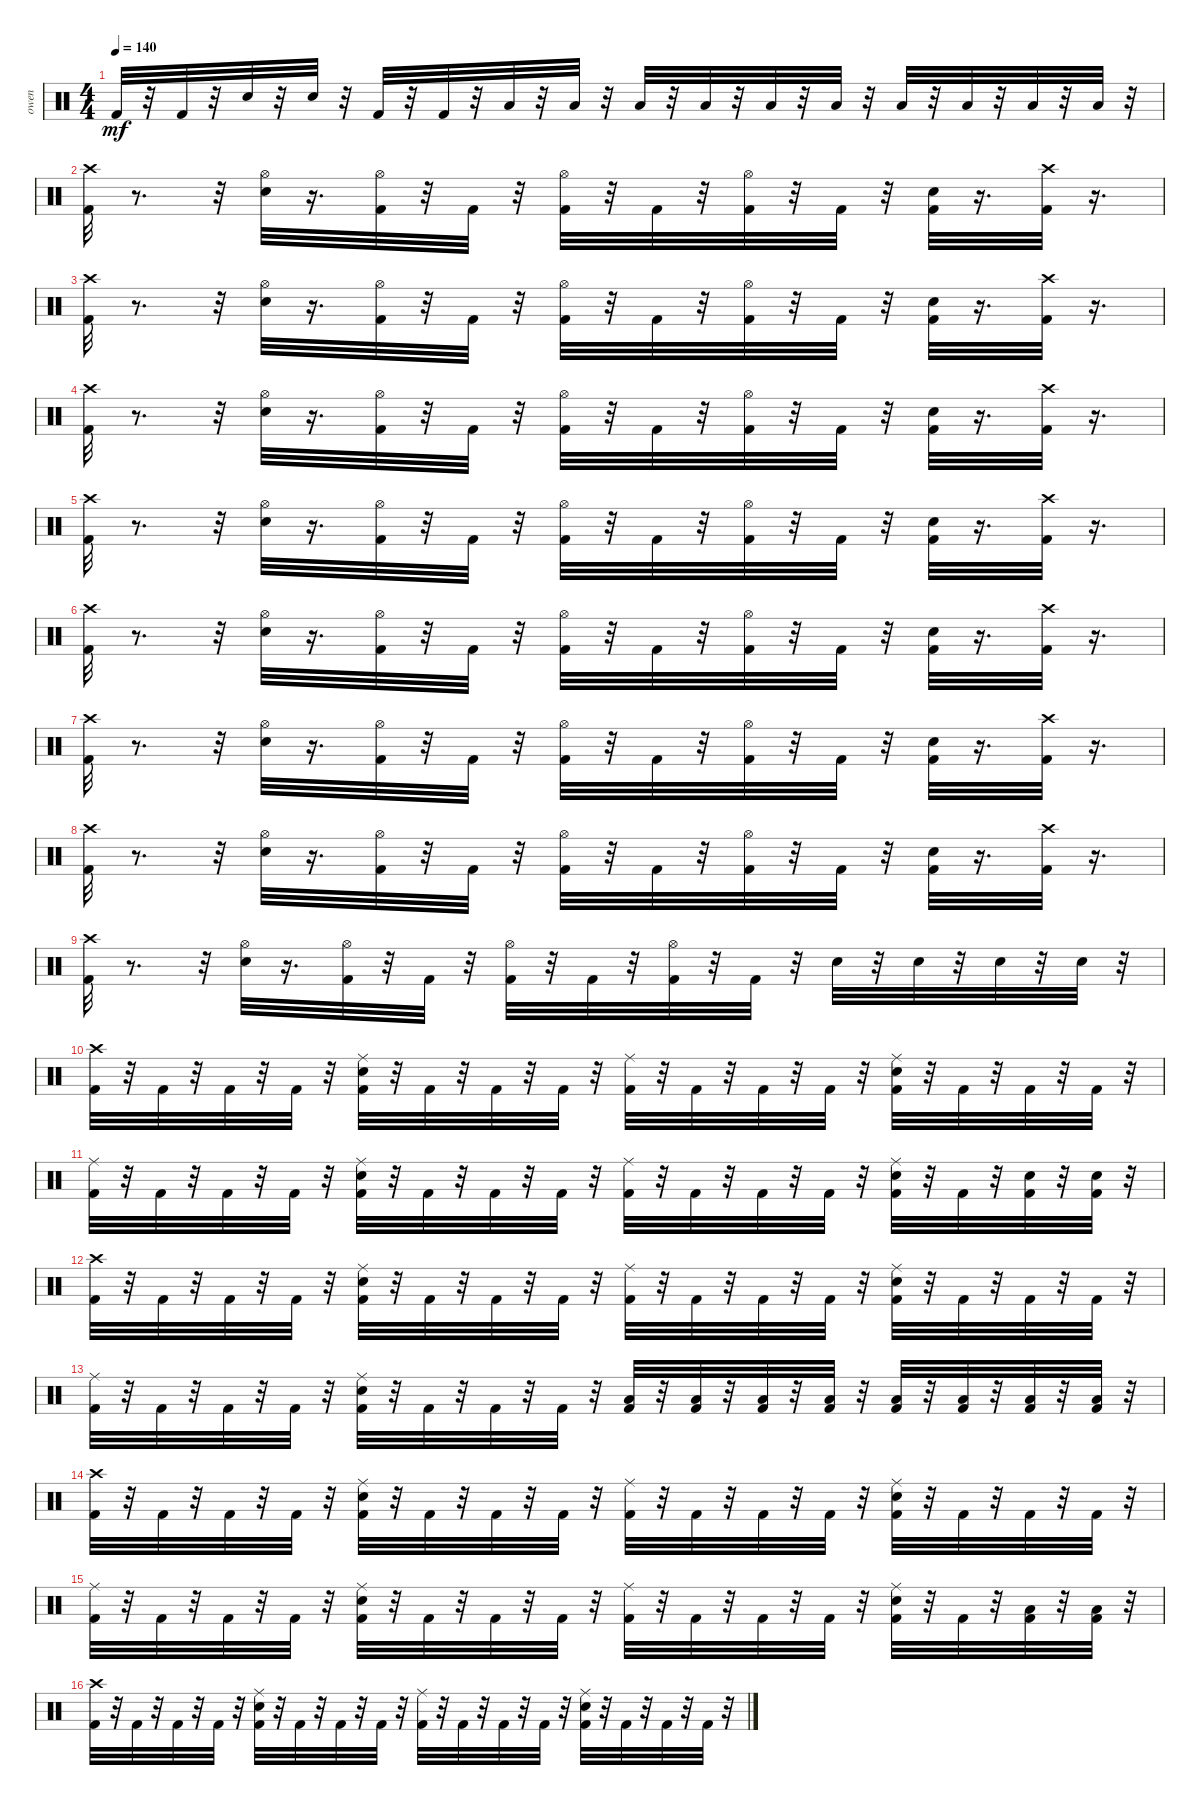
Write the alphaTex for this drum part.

\track ("owen" "owen") {instrument percussion}
\staff {score}
\articulation defaults
\ts (4 4)
\tempo 140
\clef neutral
\ks c "Kick (hit) 2".32{dy mf}
r.32 "Kick (hit) 2".32 r.32 "Snare (hit) 2".32 r.32 "Snare (hit) 2".32 r.32 "Kick (hit) 2".32 r.32 "Kick (hit) 2".32 r.32 "Low Floor Tom (hit)".32 r.32 "Low Floor Tom (hit)".32 r.32 "Low Floor Tom (hit)".32 r.32 "Low Floor Tom (hit)".32 r.32 "Low Tom (hit)".32 r.32 "Low Tom (hit)".32 r.32 "Low Tom (hit)".32 r.32 "Low Tom (hit)".32 r.32 "Low Tom (hit)".32 r.32 "Low Tom (hit)".32 r.32 |
("Kick (hit) 2" "Crash high (hit)").32 r.8{d} r.32 ("Snare (hit) 2" "Hi-Hat (open)").32 r.16{d} ("Kick (hit) 2" "Hi-Hat (open)").32 r.32 "Kick (hit) 2".32 r.32 ("Kick (hit) 2" "Hi-Hat (open)").32 r.32 "Kick (hit) 2".32 r.32 ("Kick (hit) 2" "Hi-Hat (open)").32 r.32 "Kick (hit) 2".32 r.32 ("Kick (hit) 2" "Snare (hit) 2").32 r.16{d} ("Kick (hit) 2" "Crash high (hit)").32 r.16{d} |
("Kick (hit) 2" "Crash high (hit)").32 r.8{d} r.32 ("Snare (hit) 2" "Hi-Hat (open)").32 r.16{d} ("Kick (hit) 2" "Hi-Hat (open)").32 r.32 "Kick (hit) 2".32 r.32 ("Kick (hit) 2" "Hi-Hat (open)").32 r.32 "Kick (hit) 2".32 r.32 ("Kick (hit) 2" "Hi-Hat (open)").32 r.32 "Kick (hit) 2".32 r.32 ("Kick (hit) 2" "Snare (hit) 2").32 r.16{d} ("Kick (hit) 2" "Crash high (hit)").32 r.16{d} |
("Kick (hit) 2" "Crash high (hit)").32 r.8{d} r.32 ("Snare (hit) 2" "Hi-Hat (open)").32 r.16{d} ("Kick (hit) 2" "Hi-Hat (open)").32 r.32 "Kick (hit) 2".32 r.32 ("Kick (hit) 2" "Hi-Hat (open)").32 r.32 "Kick (hit) 2".32 r.32 ("Kick (hit) 2" "Hi-Hat (open)").32 r.32 "Kick (hit) 2".32 r.32 ("Kick (hit) 2" "Snare (hit) 2").32 r.16{d} ("Kick (hit) 2" "Crash high (hit)").32 r.16{d} |
("Kick (hit) 2" "Crash high (hit)").32 r.8{d} r.32 ("Snare (hit) 2" "Hi-Hat (open)").32 r.16{d} ("Kick (hit) 2" "Hi-Hat (open)").32 r.32 "Kick (hit) 2".32 r.32 ("Kick (hit) 2" "Hi-Hat (open)").32 r.32 "Kick (hit) 2".32 r.32 ("Kick (hit) 2" "Hi-Hat (open)").32 r.32 "Kick (hit) 2".32 r.32 ("Kick (hit) 2" "Snare (hit) 2").32 r.16{d} ("Kick (hit) 2" "Crash high (hit)").32 r.16{d} |
("Kick (hit) 2" "Crash high (hit)").32 r.8{d} r.32 ("Snare (hit) 2" "Hi-Hat (open)").32 r.16{d} ("Kick (hit) 2" "Hi-Hat (open)").32 r.32 "Kick (hit) 2".32 r.32 ("Kick (hit) 2" "Hi-Hat (open)").32 r.32 "Kick (hit) 2".32 r.32 ("Kick (hit) 2" "Hi-Hat (open)").32 r.32 "Kick (hit) 2".32 r.32 ("Kick (hit) 2" "Snare (hit) 2").32 r.16{d} ("Kick (hit) 2" "Crash high (hit)").32 r.16{d} |
("Kick (hit) 2" "Crash high (hit)").32 r.8{d} r.32 ("Snare (hit) 2" "Hi-Hat (open)").32 r.16{d} ("Kick (hit) 2" "Hi-Hat (open)").32 r.32 "Kick (hit) 2".32 r.32 ("Kick (hit) 2" "Hi-Hat (open)").32 r.32 "Kick (hit) 2".32 r.32 ("Kick (hit) 2" "Hi-Hat (open)").32 r.32 "Kick (hit) 2".32 r.32 ("Kick (hit) 2" "Snare (hit) 2").32 r.16{d} ("Kick (hit) 2" "Crash high (hit)").32 r.16{d} |
("Kick (hit) 2" "Crash high (hit)").32 r.8{d} r.32 ("Snare (hit) 2" "Hi-Hat (open)").32 r.16{d} ("Kick (hit) 2" "Hi-Hat (open)").32 r.32 "Kick (hit) 2".32 r.32 ("Kick (hit) 2" "Hi-Hat (open)").32 r.32 "Kick (hit) 2".32 r.32 ("Kick (hit) 2" "Hi-Hat (open)").32 r.32 "Kick (hit) 2".32 r.32 ("Kick (hit) 2" "Snare (hit) 2").32 r.16{d} ("Kick (hit) 2" "Crash high (hit)").32 r.16{d} |
("Kick (hit) 2" "Crash high (hit)").32 r.8{d} r.32 ("Snare (hit) 2" "Hi-Hat (open)").32 r.16{d} ("Kick (hit) 2" "Hi-Hat (open)").32 r.32 "Kick (hit) 2".32 r.32 ("Kick (hit) 2" "Hi-Hat (open)").32 r.32 "Kick (hit) 2".32 r.32 ("Kick (hit) 2" "Hi-Hat (open)").32 r.32 "Kick (hit) 2".32 r.32 "Snare (hit) 2".32 r.32 "Snare (hit) 2".32 r.32 "Snare (hit) 2".32 r.32 "Snare (hit) 2".32 r.32 |
("Crash high (hit)" "Kick (hit) 2").32 r.32 "Kick (hit) 2".32 r.32 "Kick (hit) 2".32 r.32 "Kick (hit) 2".32 r.32 ("Kick (hit) 2" "Snare (hit) 2" "Ride (middle)").32 r.32 "Kick (hit) 2".32 r.32 "Kick (hit) 2".32 r.32 "Kick (hit) 2".32 r.32 ("Kick (hit) 2" "Ride (middle)").32 r.32 "Kick (hit) 2".32 r.32 "Kick (hit) 2".32 r.32 "Kick (hit) 2".32 r.32 ("Kick (hit) 2" "Snare (hit) 2" "Ride (middle)").32 r.32 "Kick (hit) 2".32 r.32 "Kick (hit) 2".32 r.32 "Kick (hit) 2".32 r.32 |
("Kick (hit) 2" "Ride (middle)").32 r.32 "Kick (hit) 2".32 r.32 "Kick (hit) 2".32 r.32 "Kick (hit) 2".32 r.32 ("Kick (hit) 2" "Snare (hit) 2" "Ride (middle)").32 r.32 "Kick (hit) 2".32 r.32 "Kick (hit) 2".32 r.32 "Kick (hit) 2".32 r.32 ("Kick (hit) 2" "Ride (middle)").32 r.32 "Kick (hit) 2".32 r.32 "Kick (hit) 2".32 r.32 "Kick (hit) 2".32 r.32 ("Kick (hit) 2" "Snare (hit) 2" "Ride (middle)").32 r.32 "Kick (hit) 2".32 r.32 ("Kick (hit) 2" "Snare (hit) 2").32 r.32 ("Kick (hit) 2" "Snare (hit) 2").32 r.32 |
("Kick (hit) 2" "Crash high (hit)").32 r.32 "Kick (hit) 2".32 r.32 "Kick (hit) 2".32 r.32 "Kick (hit) 2".32 r.32 ("Kick (hit) 2" "Snare (hit) 2" "Ride (middle)").32 r.32 "Kick (hit) 2".32 r.32 "Kick (hit) 2".32 r.32 "Kick (hit) 2".32 r.32 ("Kick (hit) 2" "Ride (middle)").32 r.32 "Kick (hit) 2".32 r.32 "Kick (hit) 2".32 r.32 "Kick (hit) 2".32 r.32 ("Kick (hit) 2" "Snare (hit) 2" "Ride (middle)").32 r.32 "Kick (hit) 2".32 r.32 "Kick (hit) 2".32 r.32 "Kick (hit) 2".32 r.32 |
("Kick (hit) 2" "Ride (middle)").32 r.32 "Kick (hit) 2".32 r.32 "Kick (hit) 2".32 r.32 "Kick (hit) 2".32 r.32 ("Kick (hit) 2" "Snare (hit) 2" "Ride (middle)").32 r.32 "Kick (hit) 2".32 r.32 "Kick (hit) 2".32 r.32 "Kick (hit) 2".32 r.32 ("Kick (hit) 2" "Low Tom (hit)").32 r.32 ("Kick (hit) 2" "Low Tom (hit)").32 r.32 ("Kick (hit) 2" "Low Tom (hit)").32 r.32 ("Kick (hit) 2" "Low Tom (hit)").32 r.32 ("Kick (hit) 2" "Low Tom (hit)").32 r.32 ("Kick (hit) 2" "Low Floor Tom (hit)").32 r.32 ("Kick (hit) 2" "Low Floor Tom (hit)").32 r.32 ("Kick (hit) 2" "Low Floor Tom (hit)").32 r.32 |
("Crash high (hit)" "Kick (hit) 2").32 r.32 "Kick (hit) 2".32 r.32 "Kick (hit) 2".32 r.32 "Kick (hit) 2".32 r.32 ("Kick (hit) 2" "Snare (hit) 2" "Ride (middle)").32 r.32 "Kick (hit) 2".32 r.32 "Kick (hit) 2".32 r.32 "Kick (hit) 2".32 r.32 ("Kick (hit) 2" "Ride (middle)").32 r.32 "Kick (hit) 2".32 r.32 "Kick (hit) 2".32 r.32 "Kick (hit) 2".32 r.32 ("Kick (hit) 2" "Snare (hit) 2" "Ride (middle)").32 r.32 "Kick (hit) 2".32 r.32 "Kick (hit) 2".32 r.32 "Kick (hit) 2".32 r.32 |
("Kick (hit) 2" "Ride (middle)").32 r.32 "Kick (hit) 2".32 r.32 "Kick (hit) 2".32 r.32 "Kick (hit) 2".32 r.32 ("Kick (hit) 2" "Snare (hit) 2" "Ride (middle)").32 r.32 "Kick (hit) 2".32 r.32 "Kick (hit) 2".32 r.32 "Kick (hit) 2".32 r.32 ("Kick (hit) 2" "Ride (middle)").32 r.32 "Kick (hit) 2".32 r.32 "Kick (hit) 2".32 r.32 "Kick (hit) 2".32 r.32 ("Kick (hit) 2" "Snare (hit) 2" "Ride (middle)").32 r.32 "Kick (hit) 2".32 r.32 ("Kick (hit) 2" "Low Floor Tom (hit)").32 r.32 ("Kick (hit) 2" "Low Floor Tom (hit)").32 r.32 |
("Kick (hit) 2" "Crash high (hit)").32 r.32 "Kick (hit) 2".32 r.32 "Kick (hit) 2".32 r.32 "Kick (hit) 2".32 r.32 ("Kick (hit) 2" "Snare (hit) 2" "Ride (middle)").32 r.32 "Kick (hit) 2".32 r.32 "Kick (hit) 2".32 r.32 "Kick (hit) 2".32 r.32 ("Kick (hit) 2" "Ride (middle)").32 r.32 "Kick (hit) 2".32 r.32 "Kick (hit) 2".32 r.32 "Kick (hit) 2".32 r.32 ("Kick (hit) 2" "Snare (hit) 2" "Ride (middle)").32 r.32 "Kick (hit) 2".32 r.32 "Kick (hit) 2".32 r.32 "Kick (hit) 2".32 r.32
